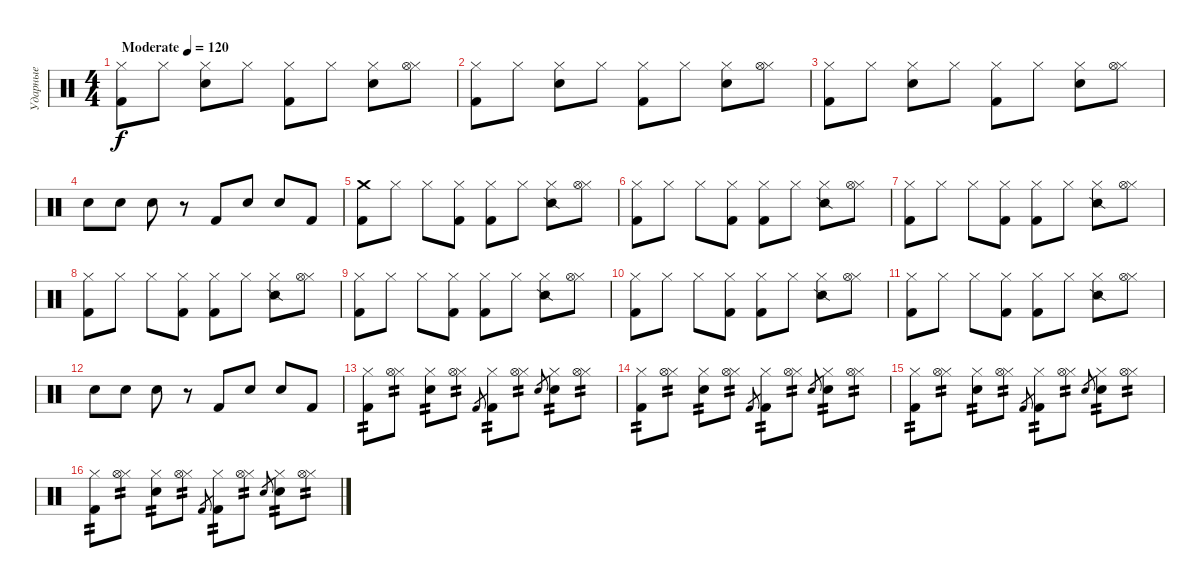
\track ("Ударные" "Ударные") {instrument percussion}
\staff {score}
\articulation defaults
\ts (4 4)
\tempo (120 "Moderate")
\clef neutral
\ks c
("Hi-Hat (closed)" "Kick (hit) 2").8{dy f} "Hi-Hat (closed)".8 ("Hi-Hat (closed)" "Snare (hit) 2").8 "Hi-Hat (closed)".8 ("Hi-Hat (closed)" "Kick (hit) 2").8 "Hi-Hat (closed)".8 ("Hi-Hat (closed)" "Snare (hit) 2").8 ("Hi-Hat (closed)" "Hi-Hat (open)").8 |
("Hi-Hat (closed)" "Kick (hit) 2").8 "Hi-Hat (closed)".8 ("Hi-Hat (closed)" "Snare (hit) 2").8 "Hi-Hat (closed)".8 ("Hi-Hat (closed)" "Kick (hit) 2").8 "Hi-Hat (closed)".8 ("Hi-Hat (closed)" "Snare (hit) 2").8 ("Hi-Hat (closed)" "Hi-Hat (open)").8 |
("Hi-Hat (closed)" "Kick (hit) 2").8 "Hi-Hat (closed)".8 ("Hi-Hat (closed)" "Snare (hit) 2").8 "Hi-Hat (closed)".8 ("Hi-Hat (closed)" "Kick (hit) 2").8 "Hi-Hat (closed)".8 ("Hi-Hat (closed)" "Snare (hit) 2").8 ("Hi-Hat (closed)" "Hi-Hat (open)").8 |
"Snare (hit) 2".8 "Snare (hit) 2".8 "Snare (hit) 2".8 r.8 "Kick (hit) 2".8 "Snare (hit) 2".8 "Snare (hit) 2".8 "Kick (hit) 2".8 |
("Crash medium (hit)" "Kick (hit) 2").8 "Hi-Hat (closed)".8 "Hi-Hat (closed)".8 ("Kick (hit) 2" "Hi-Hat (closed)").8 ("Hi-Hat (closed)" "Kick (hit) 2").8 "Hi-Hat (closed)".8 ("Hi-Hat (closed)" "Snare (side stick) 2").8 ("Hi-Hat (closed)" "Hi-Hat (open)").8 |
("Hi-Hat (closed)" "Kick (hit) 2").8 "Hi-Hat (closed)".8 "Hi-Hat (closed)".8 ("Kick (hit) 2" "Hi-Hat (closed)").8 ("Hi-Hat (closed)" "Kick (hit) 2").8 "Hi-Hat (closed)".8 ("Hi-Hat (closed)" "Snare (side stick) 2").8 ("Hi-Hat (closed)" "Hi-Hat (open)").8 |
("Hi-Hat (closed)" "Kick (hit) 2").8 "Hi-Hat (closed)".8 "Hi-Hat (closed)".8 ("Kick (hit) 2" "Hi-Hat (closed)").8 ("Hi-Hat (closed)" "Kick (hit) 2").8 "Hi-Hat (closed)".8 ("Hi-Hat (closed)" "Snare (side stick) 2").8 ("Hi-Hat (closed)" "Hi-Hat (open)").8 |
("Hi-Hat (closed)" "Kick (hit) 2").8 "Hi-Hat (closed)".8 "Hi-Hat (closed)".8 ("Kick (hit) 2" "Hi-Hat (closed)").8 ("Hi-Hat (closed)" "Kick (hit) 2").8 "Hi-Hat (closed)".8 ("Snare (side stick) 2" "Hi-Hat (closed)").8 ("Hi-Hat (closed)" "Hi-Hat (open)").8 |
("Hi-Hat (closed)" "Kick (hit) 2").8 "Hi-Hat (closed)".8 "Hi-Hat (closed)".8 ("Kick (hit) 2" "Hi-Hat (closed)").8 ("Hi-Hat (closed)" "Kick (hit) 2").8 "Hi-Hat (closed)".8 ("Hi-Hat (closed)" "Snare (side stick) 2").8 ("Hi-Hat (closed)" "Hi-Hat (open)").8 |
("Hi-Hat (closed)" "Kick (hit) 2").8 "Hi-Hat (closed)".8 "Hi-Hat (closed)".8 ("Kick (hit) 2" "Hi-Hat (closed)").8 ("Hi-Hat (closed)" "Kick (hit) 2").8 "Hi-Hat (closed)".8 ("Hi-Hat (closed)" "Snare (side stick) 2").8 ("Hi-Hat (closed)" "Hi-Hat (open)").8 |
("Hi-Hat (closed)" "Kick (hit) 2").8 "Hi-Hat (closed)".8 "Hi-Hat (closed)".8 ("Kick (hit) 2" "Hi-Hat (closed)").8 ("Hi-Hat (closed)" "Kick (hit) 2").8 "Hi-Hat (closed)".8 ("Hi-Hat (closed)" "Snare (side stick) 2").8 ("Hi-Hat (closed)" "Hi-Hat (open)").8 |
"Snare (hit) 2".8 "Snare (hit) 2".8 "Snare (hit) 2".8 r.8 "Kick (hit) 2".8 "Snare (hit) 2".8 "Snare (hit) 2".8 "Kick (hit) 2".8 |
("Hi-Hat (closed)" "Kick (hit) 2").8{tp 2} ("Hi-Hat (closed)" "Hi-Hat (open)").8{tp 2} ("Hi-Hat (closed)" "Snare (hit) 2").8{tp 2} ("Hi-Hat (closed)" "Hi-Hat (open)").8{tp 2} "Kick (hit) 2".8{gr} ("Hi-Hat (closed)" "Kick (hit) 2").8{tp 2} ("Hi-Hat (closed)" "Hi-Hat (open)").8{tp 2} "Snare (hit) 2".8{gr} ("Hi-Hat (closed)" "Snare (hit) 2").8{tp 2} ("Hi-Hat (closed)" "Hi-Hat (open)").8{tp 2} |
("Hi-Hat (closed)" "Kick (hit) 2").8{tp 2} ("Hi-Hat (closed)" "Hi-Hat (open)").8{tp 2} ("Hi-Hat (closed)" "Snare (hit) 2").8{tp 2} ("Hi-Hat (closed)" "Hi-Hat (open)").8{tp 2} "Kick (hit) 2".8{gr} ("Hi-Hat (closed)" "Kick (hit) 2").8{tp 2} ("Hi-Hat (closed)" "Hi-Hat (open)").8{tp 2} "Snare (hit) 2".8{gr} ("Hi-Hat (closed)" "Snare (hit) 2").8{tp 2} ("Hi-Hat (closed)" "Hi-Hat (open)").8{tp 2} |
("Hi-Hat (closed)" "Kick (hit) 2").8{tp 2} ("Hi-Hat (closed)" "Hi-Hat (open)").8{tp 2} ("Hi-Hat (closed)" "Snare (hit) 2").8{tp 2} ("Hi-Hat (closed)" "Hi-Hat (open)").8{tp 2} "Kick (hit) 2".8{gr} ("Hi-Hat (closed)" "Kick (hit) 2").8{tp 2} ("Hi-Hat (closed)" "Hi-Hat (open)").8{tp 2} "Snare (hit) 2".8{gr} ("Hi-Hat (closed)" "Snare (hit) 2").8{tp 2} ("Hi-Hat (closed)" "Hi-Hat (open)").8{tp 2} |
("Hi-Hat (closed)" "Kick (hit) 2").8{tp 2} ("Hi-Hat (closed)" "Hi-Hat (open)").8{tp 2} ("Hi-Hat (closed)" "Snare (hit) 2").8{tp 2} ("Hi-Hat (closed)" "Hi-Hat (open)").8{tp 2} "Kick (hit) 2".8{gr} ("Hi-Hat (closed)" "Kick (hit) 2").8{tp 2} ("Hi-Hat (closed)" "Hi-Hat (open)").8{tp 2} "Snare (hit) 2".8{gr} ("Hi-Hat (closed)" "Snare (hit) 2").8{tp 2} ("Hi-Hat (closed)" "Hi-Hat (open)").8{tp 2}
